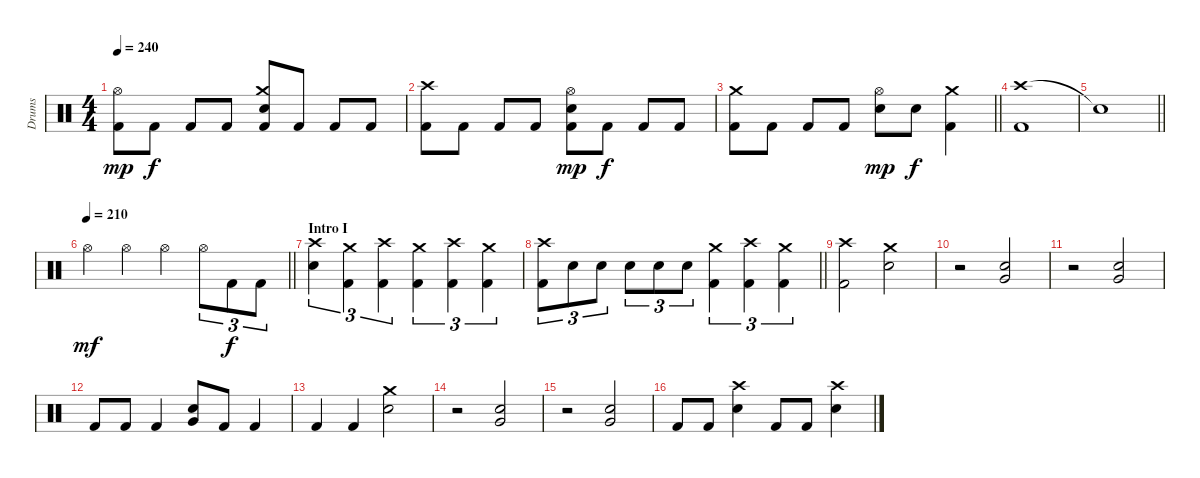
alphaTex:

\track ("Drums" "Drums") {instrument percussion}
\staff {score}
\articulation defaults
\ts (4 4)
\tempo 240
\clef neutral
\ks c
("Hi-Hat (open)" "Kick (hit) 2").8{dy mp} "Kick (hit) 2".8{dy f} "Kick (hit) 2".8 "Kick (hit) 2".8 ("Crash medium (hit)" "Snare (hit) 2" "Kick (hit) 2").8 "Kick (hit) 2".8 "Kick (hit) 2".8 "Kick (hit) 2".8 |
("Crash high (hit)" "Kick (hit) 2").8 "Kick (hit) 2".8 "Kick (hit) 2".8 "Kick (hit) 2".8 ("Hi-Hat (open)" "Snare (hit) 2" "Kick (hit) 2").8{dy mp} "Kick (hit) 2".8{dy f} "Kick (hit) 2".8 "Kick (hit) 2".8 |
\barLineRight lightlight
("Crash medium (hit)" "Kick (hit) 2").8 "Kick (hit) 2".8 "Kick (hit) 2".8 "Kick (hit) 2".8 ("Hi-Hat (open)" "Snare (hit) 2").8{dy mp} "Snare (hit) 2".8{dy f} ("Crash medium (hit)" "Kick (hit) 2").4 |
\section ("" "")
("Crash high (hit)" "Kick (hit) 2").1 |
\barLineRight lightlight "Snare (hit)"{t}.1
|
\tempo 210
\barLineRight lightlight "Hi-Hat (open)".4{dy mf} "Hi-Hat (open)".4 "Hi-Hat (open)".4 "Hi-Hat (open)".8{tu (3 2)} "Kick (hit) 2".8{tu (3 2) dy f} "Kick (hit) 2".8{tu (3 2)}
|
\section ("" "Intro I")
("Crash high (hit)" "Snare (hit) 2").4{tu (3 2)} ("Crash medium (hit)" "Kick (hit) 2").4{tu (3 2)} ("Crash high (hit)" "Kick (hit) 2").4{tu (3 2)} ("Crash medium (hit)" "Kick (hit) 2").4{tu (3 2)} ("Crash high (hit)" "Kick (hit) 2").4{tu (3 2)} ("Crash medium (hit)" "Kick (hit) 2").4{tu (3 2)} |
\barLineRight lightlight
("Crash high (hit)" "Kick (hit) 2").8{tu (3 2)} "Snare (hit) 2".8{tu (3 2)} "Snare (hit) 2".8{tu (3 2)} "Snare (hit) 2".8{tu (3 2)} "Snare (hit) 2".8{tu (3 2)} "Snare (hit) 2".8{tu (3 2)} ("Crash medium (hit)" "Kick (hit) 2").4{tu (3 2)} ("Crash high (hit)" "Kick (hit) 2").4{tu (3 2)} ("Crash medium (hit)" "Kick (hit) 2").4{tu (3 2)} |
("Crash high (hit)" "Kick (hit) 2").2 ("Crash medium (hit)" "Snare (hit) 2").2 |
r.2 ("Very Low Tom (hit)" "Snare (hit) 2").2 |
r.2 ("Very Low Tom (hit)" "Snare (hit) 2").2 |
"Kick (hit) 2".8 "Kick (hit) 2".8 "Kick (hit) 2".4 ("Very Low Tom (hit)" "Snare (hit) 2").8 "Kick (hit) 2".8 "Kick (hit) 2".4 |
"Kick (hit) 2".4 "Kick (hit) 2".4 ("Crash medium (hit)" "Snare (hit) 2").2 |
r.2 ("Very Low Tom (hit)" "Snare (hit) 2").2 |
r.2 ("Very Low Tom (hit)" "Snare (hit) 2").2 |
"Kick (hit) 2".8 "Kick (hit) 2".8 ("Crash high (hit)" "Snare (hit) 2").4 "Kick (hit) 2".8 "Kick (hit) 2".8 ("Crash high (hit)" "Snare (hit) 2").4
